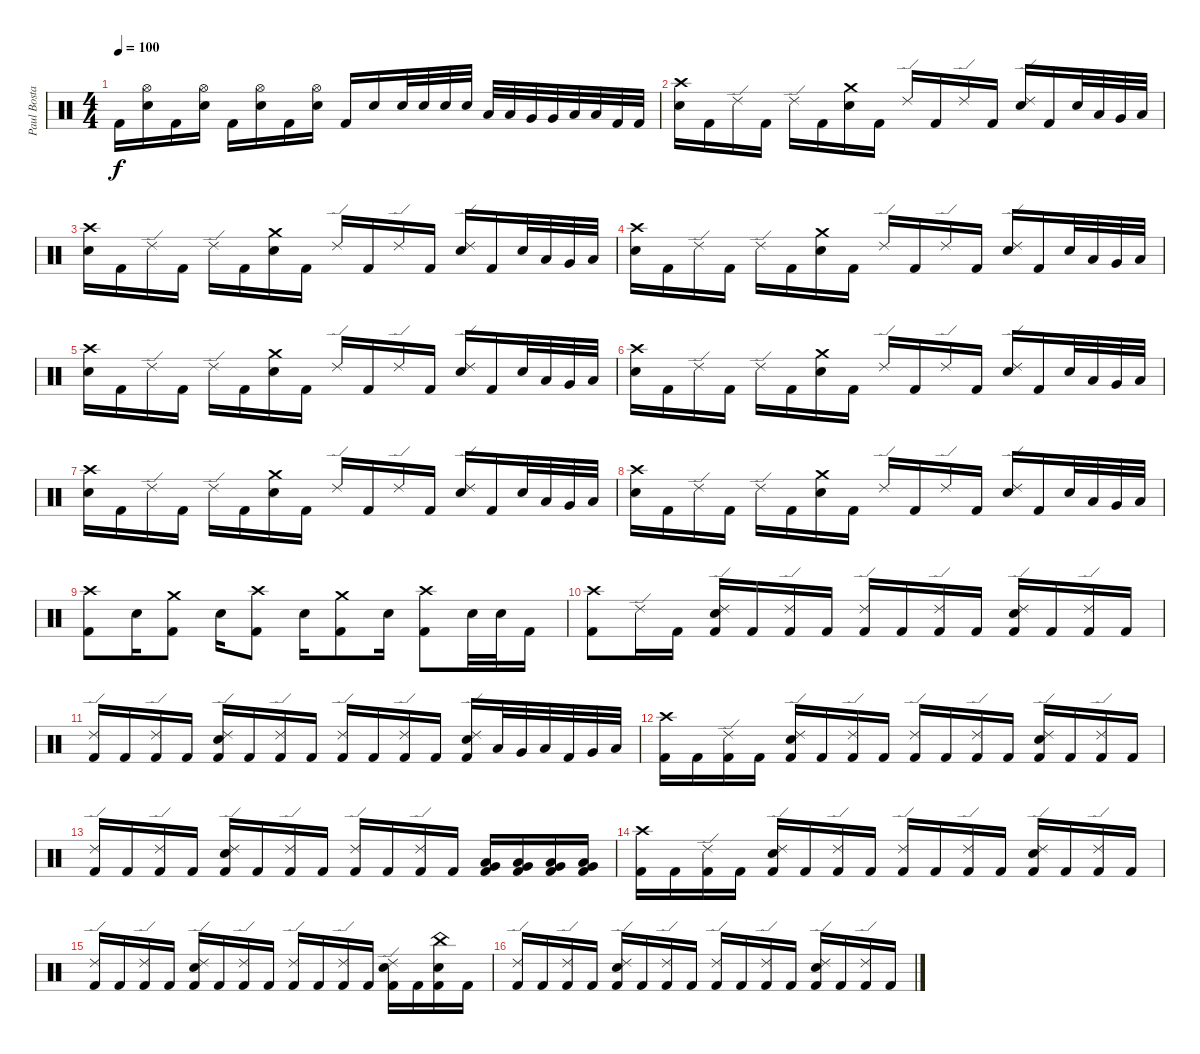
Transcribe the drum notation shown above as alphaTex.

\track ("Paul Bostaph" "Paul Bosta") {instrument percussion}
\staff {score}
\articulation defaults
\ts (4 4)
\tempo 100
\clef neutral
\ks c "Kick (hit) 2".16{dy f}
("Hi-Hat (open)" "Snare (hit) 2").16 "Kick (hit) 2".16 ("Hi-Hat (open)" "Snare (hit) 2").16 "Kick (hit) 2".16 ("Hi-Hat (open)" "Snare (hit) 2").16 "Kick (hit) 2".16 ("Hi-Hat (open)" "Snare (hit) 2").16 "Kick (hit) 2".16 "Snare (hit) 2".16 "Snare (hit) 2".32 "Snare (hit) 2".32 "Snare (hit) 2".32 "Snare (hit) 2".32 "Low Tom (hit)".32 "Low Tom (hit)".32 "Very Low Tom (hit)".32 "Very Low Tom (hit)".32 "Low Floor Tom (hit)".32 "Low Floor Tom (hit)".32 "Kick (hit) 2".32 "Kick (hit) 2".32 |
("Crash high (hit)" "Snare (hit) 2").16 "Kick (hit) 2".16 "Ride (edge) 2".16 "Kick (hit) 2".16 "Ride (edge) 2".16 "Kick (hit) 2".16 ("Crash medium (hit)" "Snare (hit) 2").16 "Kick (hit) 2".16 "Ride (edge) 2".16 "Kick (hit) 2".16 "Ride (edge) 2".16 "Kick (hit) 2".16 ("Ride (edge) 2" "Snare (hit) 2").16 "Kick (hit) 2".16 "Snare (hit) 2".32 "Low Tom (hit)".32 "Very Low Tom (hit)".32 "Low Floor Tom (hit)".32 |
("Crash high (hit)" "Snare (hit) 2").16 "Kick (hit) 2".16 "Ride (edge) 2".16 "Kick (hit) 2".16 "Ride (edge) 2".16 "Kick (hit) 2".16 ("Crash medium (hit)" "Snare (hit) 2").16 "Kick (hit) 2".16 "Ride (edge) 2".16 "Kick (hit) 2".16 "Ride (edge) 2".16 "Kick (hit) 2".16 ("Ride (edge) 2" "Snare (hit) 2").16 "Kick (hit) 2".16 "Snare (hit) 2".32 "Low Tom (hit)".32 "Very Low Tom (hit)".32 "Low Floor Tom (hit)".32 |
("Crash high (hit)" "Snare (hit) 2").16 "Kick (hit) 2".16 "Ride (edge) 2".16 "Kick (hit) 2".16 "Ride (edge) 2".16 "Kick (hit) 2".16 ("Crash medium (hit)" "Snare (hit) 2").16 "Kick (hit) 2".16 "Ride (edge) 2".16 "Kick (hit) 2".16 "Ride (edge) 2".16 "Kick (hit) 2".16 ("Ride (edge) 2" "Snare (hit) 2").16 "Kick (hit) 2".16 "Snare (hit) 2".32 "Low Tom (hit)".32 "Very Low Tom (hit)".32 "Low Floor Tom (hit)".32 |
("Crash high (hit)" "Snare (hit) 2").16 "Kick (hit) 2".16 "Ride (edge) 2".16 "Kick (hit) 2".16 "Ride (edge) 2".16 "Kick (hit) 2".16 ("Crash medium (hit)" "Snare (hit) 2").16 "Kick (hit) 2".16 "Ride (edge) 2".16 "Kick (hit) 2".16 "Ride (edge) 2".16 "Kick (hit) 2".16 ("Ride (edge) 2" "Snare (hit) 2").16 "Kick (hit) 2".16 "Snare (hit) 2".32 "Low Tom (hit)".32 "Very Low Tom (hit)".32 "Low Floor Tom (hit)".32 |
("Crash high (hit)" "Snare (hit) 2").16 "Kick (hit) 2".16 "Ride (edge) 2".16 "Kick (hit) 2".16 "Ride (edge) 2".16 "Kick (hit) 2".16 ("Crash medium (hit)" "Snare (hit) 2").16 "Kick (hit) 2".16 "Ride (edge) 2".16 "Kick (hit) 2".16 "Ride (edge) 2".16 "Kick (hit) 2".16 ("Ride (edge) 2" "Snare (hit) 2").16 "Kick (hit) 2".16 "Snare (hit) 2".32 "Low Tom (hit)".32 "Very Low Tom (hit)".32 "Low Floor Tom (hit)".32 |
("Crash high (hit)" "Snare (hit) 2").16 "Kick (hit) 2".16 "Ride (edge) 2".16 "Kick (hit) 2".16 "Ride (edge) 2".16 "Kick (hit) 2".16 ("Crash medium (hit)" "Snare (hit) 2").16 "Kick (hit) 2".16 "Ride (edge) 2".16 "Kick (hit) 2".16 "Ride (edge) 2".16 "Kick (hit) 2".16 ("Ride (edge) 2" "Snare (hit) 2").16 "Kick (hit) 2".16 "Snare (hit) 2".32 "Low Tom (hit)".32 "Very Low Tom (hit)".32 "Low Floor Tom (hit)".32 |
("Crash high (hit)" "Snare (hit) 2").16 "Kick (hit) 2".16 "Ride (edge) 2".16 "Kick (hit) 2".16 "Ride (edge) 2".16 "Kick (hit) 2".16 ("Crash medium (hit)" "Snare (hit) 2").16 "Kick (hit) 2".16 "Ride (edge) 2".16 "Kick (hit) 2".16 "Ride (edge) 2".16 "Kick (hit) 2".16 ("Ride (edge) 2" "Snare (hit) 2").16 "Kick (hit) 2".16 "Snare (hit) 2".32 "Low Tom (hit)".32 "Very Low Tom (hit)".32 "Low Floor Tom (hit)".32 |
("Crash high (hit)" "Kick (hit) 2").8 "Snare (hit) 2".16 ("Crash medium (hit)" "Kick (hit) 2").8 "Snare (hit) 2".16 ("Crash high (hit)" "Kick (hit) 2").8 "Snare (hit) 2".16 ("Crash medium (hit)" "Kick (hit) 2").8 "Snare (hit) 2".16 ("Crash high (hit)" "Kick (hit) 2").8 "Snare (hit) 2".32 "Snare (hit) 2".32 "Kick (hit) 2".16 |
("Crash high (hit)" "Kick (hit) 2").8 "Ride (edge) 2".16 "Kick (hit) 2".16 ("Ride (edge) 2" "Snare (hit) 2" "Kick (hit) 2").16 "Kick (hit) 2".16 ("Ride (edge) 2" "Kick (hit) 2").16 "Kick (hit) 2".16 ("Ride (edge) 2" "Kick (hit) 2").16 "Kick (hit) 2".16 ("Ride (edge) 2" "Kick (hit) 2").16 "Kick (hit) 2".16 ("Ride (edge) 2" "Snare (hit) 2" "Kick (hit) 2").16 "Kick (hit) 2".16 ("Ride (edge) 2" "Kick (hit) 2").16 "Kick (hit) 2".16 |
("Ride (edge) 2" "Kick (hit) 2").16 "Kick (hit) 2".16 ("Ride (edge) 2" "Kick (hit) 2").16 "Kick (hit) 2".16 ("Ride (edge) 2" "Snare (hit) 2" "Kick (hit) 2").16 "Kick (hit) 2".16 ("Ride (edge) 2" "Kick (hit) 2").16 "Kick (hit) 2".16 ("Ride (edge) 2" "Kick (hit) 2").16 "Kick (hit) 2".16 ("Ride (edge) 2" "Kick (hit) 2").16 "Kick (hit) 2".16 ("Ride (edge) 2" "Snare (hit) 2" "Kick (hit) 2").16 "Low Tom (hit)".32 "Very Low Tom (hit)".32 "Low Floor Tom (hit)".32 "Kick (hit) 2".32 "Very Low Tom (hit)".32 "Low Floor Tom (hit)".32 |
("Crash high (hit)" "Kick (hit) 2").16 "Kick (hit) 2".16 ("Ride (edge) 2" "Kick (hit) 2").16 "Kick (hit) 2".16 ("Ride (edge) 2" "Snare (hit) 2" "Kick (hit) 2").16 "Kick (hit) 2".16 ("Ride (edge) 2" "Kick (hit) 2").16 "Kick (hit) 2".16 ("Ride (edge) 2" "Kick (hit) 2").16 "Kick (hit) 2".16 ("Ride (edge) 2" "Kick (hit) 2").16 "Kick (hit) 2".16 ("Ride (edge) 2" "Snare (hit) 2" "Kick (hit) 2").16 "Kick (hit) 2".16 ("Ride (edge) 2" "Kick (hit) 2").16 "Kick (hit) 2".16 |
("Ride (edge) 2" "Kick (hit) 2").16 "Kick (hit) 2".16 ("Ride (edge) 2" "Kick (hit) 2").16 "Kick (hit) 2".16 ("Ride (edge) 2" "Snare (hit) 2" "Kick (hit) 2").16 "Kick (hit) 2".16 ("Ride (edge) 2" "Kick (hit) 2").16 "Kick (hit) 2".16 ("Ride (edge) 2" "Kick (hit) 2").16 "Kick (hit) 2".16 ("Ride (edge) 2" "Kick (hit) 2").16 "Kick (hit) 2".16 ("Low Tom (hit)" "Very Low Tom (hit)" "Kick (hit) 2").16 ("Low Tom (hit)" "Very Low Tom (hit)" "Kick (hit) 2").16 ("Very Low Tom (hit)" "Low Floor Tom (hit)" "Kick (hit) 2").16 ("Very Low Tom (hit)" "Low Floor Tom (hit)" "Kick (hit) 2").16 |
("Crash high (hit)" "Kick (hit) 2").16 "Kick (hit) 2".16 ("Ride (edge) 2" "Kick (hit) 2").16 "Kick (hit) 2".16 ("Ride (edge) 2" "Snare (hit) 2" "Kick (hit) 2").16 "Kick (hit) 2".16 ("Ride (edge) 2" "Kick (hit) 2").16 "Kick (hit) 2".16 ("Ride (edge) 2" "Kick (hit) 2").16 "Kick (hit) 2".16 ("Ride (edge) 2" "Kick (hit) 2").16 "Kick (hit) 2".16 ("Ride (edge) 2" "Snare (hit) 2" "Kick (hit) 2").16 "Kick (hit) 2".16 ("Ride (edge) 2" "Kick (hit) 2").16 "Kick (hit) 2".16 |
("Ride (edge) 2" "Kick (hit) 2").16 "Kick (hit) 2".16 ("Ride (edge) 2" "Kick (hit) 2").16 "Kick (hit) 2".16 ("Ride (edge) 2" "Snare (hit) 2" "Kick (hit) 2").16 "Kick (hit) 2".16 ("Ride (edge) 2" "Kick (hit) 2").16 "Kick (hit) 2".16 ("Ride (edge) 2" "Kick (hit) 2").16 "Kick (hit) 2".16 ("Ride (edge) 2" "Kick (hit) 2").16 "Kick (hit) 2".16 ("Ride (edge) 2" "Snare (hit) 2" "Kick (hit) 2").16 "Kick (hit) 2".16 ("China (hit)" "Snare (hit) 2" "Kick (hit) 2").16 "Kick (hit) 2".16 |
("Ride (edge) 2" "Kick (hit) 2").16 "Kick (hit) 2".16 ("Ride (edge) 2" "Kick (hit) 2").16 "Kick (hit) 2".16 ("Ride (edge) 2" "Snare (hit) 2" "Kick (hit) 2").16 "Kick (hit) 2".16 ("Ride (edge) 2" "Kick (hit) 2").16 "Kick (hit) 2".16 ("Ride (edge) 2" "Kick (hit) 2").16 "Kick (hit) 2".16 ("Ride (edge) 2" "Kick (hit) 2").16 "Kick (hit) 2".16 ("Ride (edge) 2" "Snare (hit) 2" "Kick (hit) 2").16 "Kick (hit) 2".16 ("Ride (edge) 2" "Kick (hit) 2").16 "Kick (hit) 2".16
